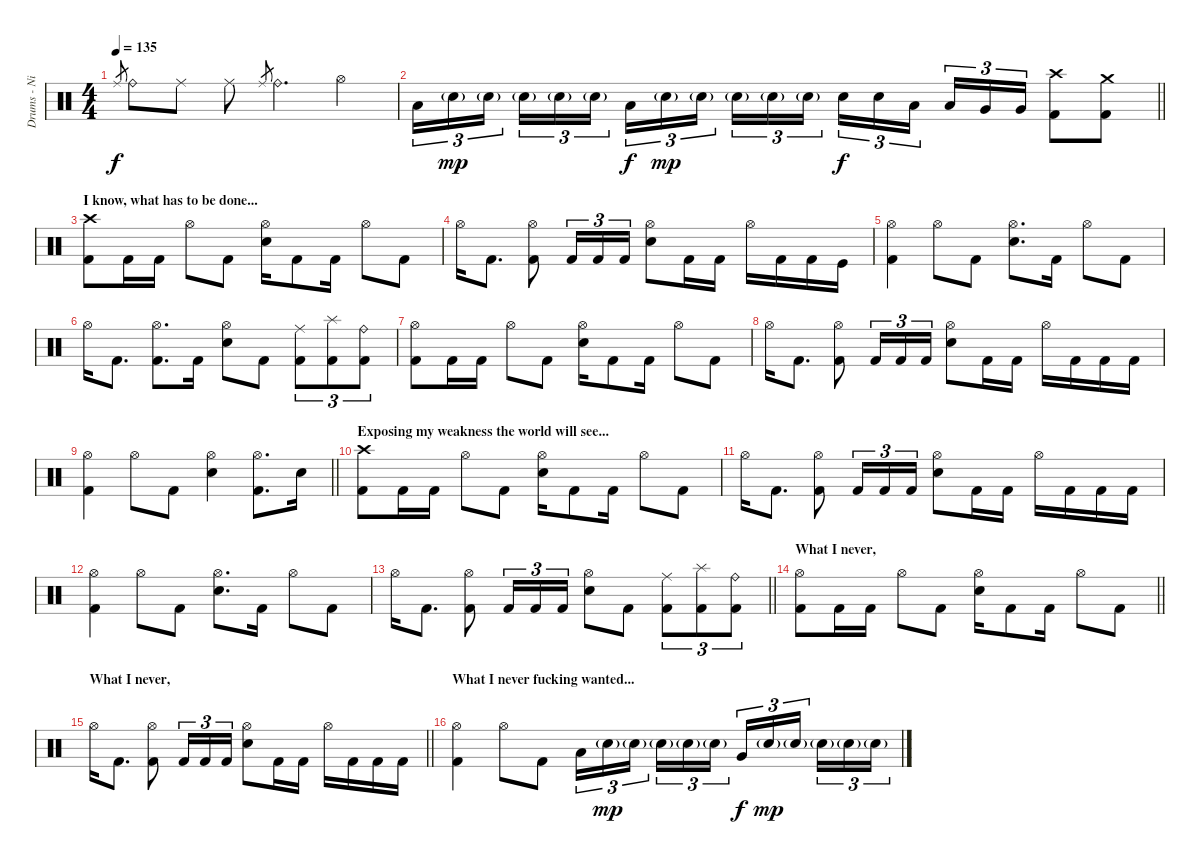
\track ("Drums - Nic" "Drums - Ni") {instrument percussion}
\staff {score}
\articulation defaults
\ts (4 4)
\tempo 135
\clef neutral
\ks c "Ride (middle)".8{gr dy f} "Ride (bell)".8 "Ride (middle)".8 "Ride (middle)".8 "Ride (middle)".8{gr} "Ride (bell)".4{d} "Hi-Hat (open)".4
|
\barLineRight lightlight "Low Floor Tom (hit)".16{tu (3 2)} "Electric Snare (hit)"{g}.16{tu (3 2) dy mp} "Electric Snare (hit)"{g}.16{tu (3 2) beam splitsecondary} "Electric Snare (hit)"{g}.16{tu (3 2)} "Electric Snare (hit)"{g}.16{tu (3 2)} "Electric Snare (hit)"{g}.16{tu (3 2)} "Low Tom (hit)".16{tu (3 2) dy f} "Electric Snare (hit)"{g}.16{tu (3 2) dy mp} "Electric Snare (hit)"{g}.16{tu (3 2) beam splitsecondary} "Electric Snare (hit)"{g}.16{tu (3 2)} "Electric Snare (hit)"{g}.16{tu (3 2)} "Electric Snare (hit)"{g}.16{tu (3 2)} "Electric Snare (hit)".16{tu (3 2) dy f} "Electric Snare (hit)".16{tu (3 2)} "Low Tom (hit)".16{tu (3 2) beam splitsecondary} "Low Tom (hit)".16{tu (3 2)} "Very Low Tom (hit)".16{tu (3 2)} "Very Low Tom (hit)".16{tu (3 2)}
("Crash high (hit)" "Kick (hit) 2").8 ("Crash medium (hit)" "Kick (hit) 2").8 |
\section ("" "I know, what has to be done...")
("Crash high (hit)" "Kick (hit) 2").8 "Kick (hit) 2".16 "Kick (hit) 2".16 "Hi-Hat (open)".8 "Kick (hit) 2".8 ("Hi-Hat (open)" "Electric Snare (hit)").16 "Kick (hit) 2".8 "Kick (hit) 2".16 "Hi-Hat (open)".8 "Kick (hit) 2".8 |
"Hi-Hat (open)".16 "Kick (hit) 2".8{d} ("Hi-Hat (open)" "Kick (hit) 2").8 "Kick (hit) 2".16{tu (3 2)} "Kick (hit) 2".16{tu (3 2)} "Kick (hit) 2".16{tu (3 2)} ("Hi-Hat (open)" "Electric Snare (hit)").8 "Kick (hit) 2".16 "Kick (hit) 2".16 "Hi-Hat (open)".16 "Kick (hit) 2".16 "Kick (hit) 2".16 "Kick (hit)".16 |
("Hi-Hat (open)" "Kick (hit) 2").4 "Hi-Hat (open)".8 "Kick (hit) 2".8 ("Hi-Hat (open)" "Electric Snare (hit)").8{d} "Kick (hit) 2".16 "Hi-Hat (open)".8 "Kick (hit) 2".8 |
"Hi-Hat (open)".16 "Kick (hit) 2".8{d} ("Hi-Hat (open)" "Kick (hit) 2").8{d} "Kick (hit) 2".16 ("Hi-Hat (open)" "Electric Snare (hit)").8 "Kick (hit) 2".8 ("Ride (middle)" "Kick (hit) 2").8{tu (3 2)} ("Splash (hit)" "Kick (hit) 2").8{tu (3 2)} ("Ride (bell)" "Kick (hit) 2").8{tu (3 2)} |
("Hi-Hat (open)" "Kick (hit) 2").8 "Kick (hit) 2".16 "Kick (hit) 2".16 "Hi-Hat (open)".8 "Kick (hit) 2".8 ("Hi-Hat (open)" "Electric Snare (hit)").16 "Kick (hit) 2".8 "Kick (hit) 2".16 "Hi-Hat (open)".8 "Kick (hit) 2".8 |
"Hi-Hat (open)".16 "Kick (hit) 2".8{d} ("Hi-Hat (open)" "Kick (hit) 2").8 "Kick (hit) 2".16{tu (3 2)} "Kick (hit) 2".16{tu (3 2)} "Kick (hit) 2".16{tu (3 2)} ("Hi-Hat (open)" "Electric Snare (hit)").8 "Kick (hit) 2".16 "Kick (hit) 2".16 "Hi-Hat (open)".16 "Kick (hit) 2".16 "Kick (hit) 2".16 "Kick (hit) 2".16 |
\barLineRight lightlight
("Hi-Hat (open)" "Kick (hit) 2").4 "Hi-Hat (open)".8 "Kick (hit) 2".8 ("Hi-Hat (open)" "Electric Snare (hit)").4 ("Hi-Hat (open)" "Kick (hit) 2").8{d} "Electric Snare (hit)".16 |
\section ("" "Exposing my weakness the world will see...")
("Crash high (hit)" "Kick (hit) 2").8 "Kick (hit) 2".16 "Kick (hit) 2".16 "Hi-Hat (open)".8 "Kick (hit) 2".8 ("Hi-Hat (open)" "Electric Snare (hit)").16 "Kick (hit) 2".8 "Kick (hit) 2".16 "Hi-Hat (open)".8 "Kick (hit) 2".8 |
"Hi-Hat (open)".16 "Kick (hit) 2".8{d} ("Hi-Hat (open)" "Kick (hit) 2").8 "Kick (hit) 2".16{tu (3 2)} "Kick (hit) 2".16{tu (3 2)} "Kick (hit) 2".16{tu (3 2)} ("Hi-Hat (open)" "Electric Snare (hit)").8 "Kick (hit) 2".16 "Kick (hit) 2".16 "Hi-Hat (open)".16 "Kick (hit) 2".16 "Kick (hit) 2".16 "Kick (hit) 2".16 |
("Hi-Hat (open)" "Kick (hit) 2").4 "Hi-Hat (open)".8 "Kick (hit) 2".8 ("Hi-Hat (open)" "Electric Snare (hit)").8{d} "Kick (hit) 2".16 "Hi-Hat (open)".8 "Kick (hit) 2".8 |
\barLineRight lightlight "Hi-Hat (open)".16 "Kick (hit) 2".8{d}
("Hi-Hat (open)" "Kick (hit) 2").8 "Kick (hit) 2".16{tu (3 2)} "Kick (hit) 2".16{tu (3 2)} "Kick (hit) 2".16{tu (3 2)} ("Hi-Hat (open)" "Electric Snare (hit)").8 "Kick (hit) 2".8 ("Ride (middle)" "Kick (hit) 2").8{tu (3 2)} ("Splash (hit)" "Kick (hit) 2").8{tu (3 2)} ("Ride (bell)" "Kick (hit) 2").8{tu (3 2)} |
\section ("" "What I never,")
\barLineRight lightlight
("Hi-Hat (open)" "Kick (hit) 2").8 "Kick (hit) 2".16 "Kick (hit) 2".16 "Hi-Hat (open)".8 "Kick (hit) 2".8 ("Hi-Hat (open)" "Electric Snare (hit)").16 "Kick (hit) 2".8 "Kick (hit) 2".16 "Hi-Hat (open)".8 "Kick (hit) 2".8 |
\section ("" "What I never,")
\barLineRight lightlight "Hi-Hat (open)".16 "Kick (hit) 2".8{d}
("Hi-Hat (open)" "Kick (hit) 2").8 "Kick (hit) 2".16{tu (3 2)} "Kick (hit) 2".16{tu (3 2)} "Kick (hit) 2".16{tu (3 2)} ("Hi-Hat (open)" "Electric Snare (hit)").8 "Kick (hit) 2".16 "Kick (hit) 2".16 "Hi-Hat (open)".16 "Kick (hit) 2".16 "Kick (hit) 2".16 "Kick (hit) 2".16 |
\section ("" "What I never fucking wanted...")
("Hi-Hat (open)" "Kick (hit) 2").4 "Hi-Hat (open)".8 "Kick (hit) 2".8 "Low Floor Tom (hit)".16{tu (3 2)} "Electric Snare (hit)"{g}.16{tu (3 2) dy mp} "Electric Snare (hit)"{g}.16{tu (3 2) beam splitsecondary} "Electric Snare (hit)"{g}.16{tu (3 2)} "Electric Snare (hit)"{g}.16{tu (3 2)} "Electric Snare (hit)"{g}.16{tu (3 2)} "Very Low Tom (hit)".16{tu (3 2) dy f} "Electric Snare (hit)"{g}.16{tu (3 2) dy mp} "Electric Snare (hit)"{g}.16{tu (3 2) beam splitsecondary} "Electric Snare (hit)"{g}.16{tu (3 2)} "Electric Snare (hit)"{g}.16{tu (3 2)} "Electric Snare (hit)"{g}.16{tu (3 2)}
